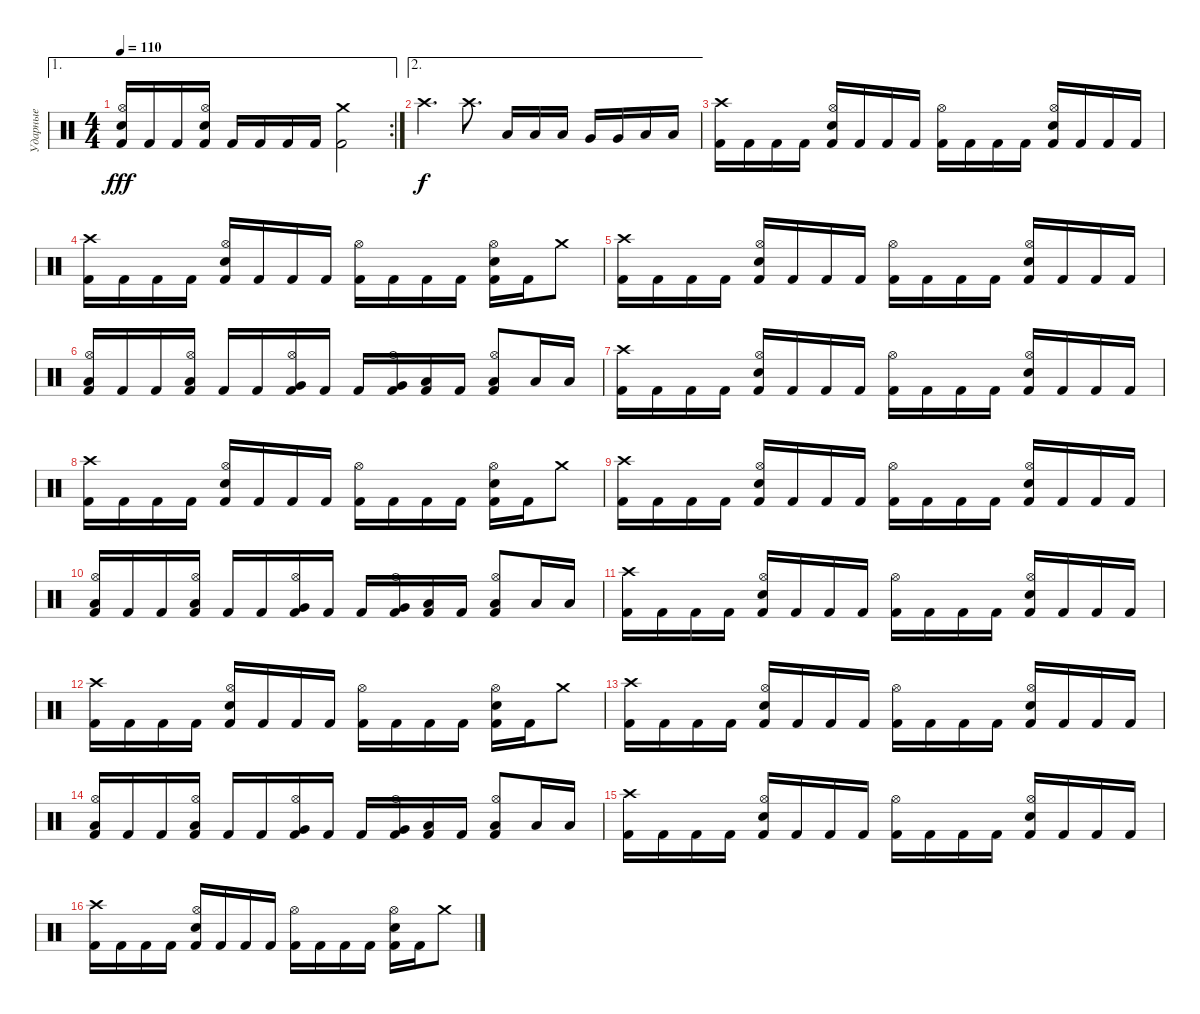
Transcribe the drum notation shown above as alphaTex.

\track ("Ударные" "Ударные") {instrument percussion}
\staff {score}
\articulation defaults
\ae 1
\rc 2
\ts (4 4)
\tempo 110
\clef neutral
\ks c
("Kick (hit) 2" "Hi-Hat (open)" "Snare (hit) 2").16{dy fff} "Kick (hit) 2".16 "Kick (hit) 2".16 ("Kick (hit) 2" "Hi-Hat (open)" "Snare (hit) 2").16 "Kick (hit) 2".16 "Kick (hit) 2".16 "Kick (hit) 2".16 "Kick (hit) 2".16 ("Kick (hit) 2" "Crash medium (hit)").2 |
\ae 2 "Crash high (hit)".4{d dy f} "Crash high (hit)".8{d} "Low Tom (hit)".16 "Low Tom (hit)".16 "Low Tom (hit)".16 "Very Low Tom (hit)".16 "Very Low Tom (hit)".16 "Low Floor Tom (hit)".16 "Low Floor Tom (hit)".16
|
("Kick (hit) 2" "Crash high (hit)").16 "Kick (hit) 2".16 "Kick (hit) 2".16 "Kick (hit) 2".16 ("Kick (hit) 2" "Hi-Hat (open)" "Snare (hit) 2").16 "Kick (hit) 2".16 "Kick (hit) 2".16 "Kick (hit) 2".16 ("Kick (hit) 2" "Hi-Hat (open)").16 "Kick (hit) 2".16 "Kick (hit) 2".16 "Kick (hit) 2".16 ("Kick (hit) 2" "Hi-Hat (open)" "Snare (hit) 2").16 "Kick (hit) 2".16 "Kick (hit) 2".16 "Kick (hit) 2".16 |
("Kick (hit) 2" "Crash high (hit)").16 "Kick (hit) 2".16 "Kick (hit) 2".16 "Kick (hit) 2".16 ("Kick (hit) 2" "Hi-Hat (open)" "Snare (hit) 2").16 "Kick (hit) 2".16 "Kick (hit) 2".16 "Kick (hit) 2".16 ("Kick (hit) 2" "Hi-Hat (open)").16 "Kick (hit) 2".16 "Kick (hit) 2".16 "Kick (hit) 2".16 ("Kick (hit) 2" "Hi-Hat (open)" "Snare (hit) 2").16 "Kick (hit) 2".16 "Crash medium (hit)".8 |
("Kick (hit) 2" "Crash high (hit)").16 "Kick (hit) 2".16 "Kick (hit) 2".16 "Kick (hit) 2".16 ("Kick (hit) 2" "Hi-Hat (open)" "Snare (hit) 2").16 "Kick (hit) 2".16 "Kick (hit) 2".16 "Kick (hit) 2".16 ("Kick (hit) 2" "Hi-Hat (open)").16 "Kick (hit) 2".16 "Kick (hit) 2".16 "Kick (hit) 2".16 ("Kick (hit) 2" "Hi-Hat (open)" "Snare (hit) 2").16 "Kick (hit) 2".16 "Kick (hit) 2".16 "Kick (hit) 2".16 |
("Kick (hit) 2" "Low Floor Tom (hit)" "Hi-Hat (open)").16 "Kick (hit) 2".16 "Kick (hit) 2".16 ("Kick (hit) 2" "Low Floor Tom (hit)" "Hi-Hat (open)").16 "Kick (hit) 2".16 "Kick (hit) 2".16 ("Kick (hit) 2" "Very Low Tom (hit)" "Hi-Hat (open)").16 "Kick (hit) 2".16 "Kick (hit) 2".16 ("Kick (hit) 2" "Very Low Tom (hit)" "Hi-Hat (open)").16 ("Kick (hit) 2" "Low Tom (hit)").16 "Kick (hit) 2".16 ("Kick (hit) 2" "Low Tom (hit)" "Hi-Hat (open)").8 "Low Floor Tom (hit)".16 "Low Floor Tom (hit)".16 |
("Kick (hit) 2" "Crash high (hit)").16 "Kick (hit) 2".16 "Kick (hit) 2".16 "Kick (hit) 2".16 ("Kick (hit) 2" "Hi-Hat (open)" "Snare (hit) 2").16 "Kick (hit) 2".16 "Kick (hit) 2".16 "Kick (hit) 2".16 ("Kick (hit) 2" "Hi-Hat (open)").16 "Kick (hit) 2".16 "Kick (hit) 2".16 "Kick (hit) 2".16 ("Kick (hit) 2" "Hi-Hat (open)" "Snare (hit) 2").16 "Kick (hit) 2".16 "Kick (hit) 2".16 "Kick (hit) 2".16 |
("Kick (hit) 2" "Crash high (hit)").16 "Kick (hit) 2".16 "Kick (hit) 2".16 "Kick (hit) 2".16 ("Kick (hit) 2" "Hi-Hat (open)" "Snare (hit) 2").16 "Kick (hit) 2".16 "Kick (hit) 2".16 "Kick (hit) 2".16 ("Kick (hit) 2" "Hi-Hat (open)").16 "Kick (hit) 2".16 "Kick (hit) 2".16 "Kick (hit) 2".16 ("Kick (hit) 2" "Hi-Hat (open)" "Snare (hit) 2").16 "Kick (hit) 2".16 "Crash medium (hit)".8 |
("Kick (hit) 2" "Crash high (hit)").16 "Kick (hit) 2".16 "Kick (hit) 2".16 "Kick (hit) 2".16 ("Kick (hit) 2" "Hi-Hat (open)" "Snare (hit) 2").16 "Kick (hit) 2".16 "Kick (hit) 2".16 "Kick (hit) 2".16 ("Kick (hit) 2" "Hi-Hat (open)").16 "Kick (hit) 2".16 "Kick (hit) 2".16 "Kick (hit) 2".16 ("Kick (hit) 2" "Hi-Hat (open)" "Snare (hit) 2").16 "Kick (hit) 2".16 "Kick (hit) 2".16 "Kick (hit) 2".16 |
("Kick (hit) 2" "Low Floor Tom (hit)" "Hi-Hat (open)").16 "Kick (hit) 2".16 "Kick (hit) 2".16 ("Kick (hit) 2" "Low Floor Tom (hit)" "Hi-Hat (open)").16 "Kick (hit) 2".16 "Kick (hit) 2".16 ("Kick (hit) 2" "Very Low Tom (hit)" "Hi-Hat (open)").16 "Kick (hit) 2".16 "Kick (hit) 2".16 ("Kick (hit) 2" "Very Low Tom (hit)" "Hi-Hat (open)").16 ("Kick (hit) 2" "Low Tom (hit)").16 "Kick (hit) 2".16 ("Kick (hit) 2" "Low Tom (hit)" "Hi-Hat (open)").8 "Low Floor Tom (hit)".16 "Low Floor Tom (hit)".16 |
("Kick (hit) 2" "Crash high (hit)").16 "Kick (hit) 2".16 "Kick (hit) 2".16 "Kick (hit) 2".16 ("Kick (hit) 2" "Hi-Hat (open)" "Snare (hit) 2").16 "Kick (hit) 2".16 "Kick (hit) 2".16 "Kick (hit) 2".16 ("Kick (hit) 2" "Hi-Hat (open)").16 "Kick (hit) 2".16 "Kick (hit) 2".16 "Kick (hit) 2".16 ("Kick (hit) 2" "Hi-Hat (open)" "Snare (hit) 2").16 "Kick (hit) 2".16 "Kick (hit) 2".16 "Kick (hit) 2".16 |
("Kick (hit) 2" "Crash high (hit)").16 "Kick (hit) 2".16 "Kick (hit) 2".16 "Kick (hit) 2".16 ("Kick (hit) 2" "Hi-Hat (open)" "Snare (hit) 2").16 "Kick (hit) 2".16 "Kick (hit) 2".16 "Kick (hit) 2".16 ("Kick (hit) 2" "Hi-Hat (open)").16 "Kick (hit) 2".16 "Kick (hit) 2".16 "Kick (hit) 2".16 ("Kick (hit) 2" "Hi-Hat (open)" "Snare (hit) 2").16 "Kick (hit) 2".16 "Crash medium (hit)".8 |
("Kick (hit) 2" "Crash high (hit)").16 "Kick (hit) 2".16 "Kick (hit) 2".16 "Kick (hit) 2".16 ("Kick (hit) 2" "Hi-Hat (open)" "Snare (hit) 2").16 "Kick (hit) 2".16 "Kick (hit) 2".16 "Kick (hit) 2".16 ("Kick (hit) 2" "Hi-Hat (open)").16 "Kick (hit) 2".16 "Kick (hit) 2".16 "Kick (hit) 2".16 ("Kick (hit) 2" "Hi-Hat (open)" "Snare (hit) 2").16 "Kick (hit) 2".16 "Kick (hit) 2".16 "Kick (hit) 2".16 |
("Kick (hit) 2" "Low Floor Tom (hit)" "Hi-Hat (open)").16 "Kick (hit) 2".16 "Kick (hit) 2".16 ("Kick (hit) 2" "Low Floor Tom (hit)" "Hi-Hat (open)").16 "Kick (hit) 2".16 "Kick (hit) 2".16 ("Kick (hit) 2" "Very Low Tom (hit)" "Hi-Hat (open)").16 "Kick (hit) 2".16 "Kick (hit) 2".16 ("Kick (hit) 2" "Very Low Tom (hit)" "Hi-Hat (open)").16 ("Kick (hit) 2" "Low Tom (hit)").16 "Kick (hit) 2".16 ("Kick (hit) 2" "Low Tom (hit)" "Hi-Hat (open)").8 "Low Floor Tom (hit)".16 "Low Floor Tom (hit)".16 |
("Kick (hit) 2" "Crash high (hit)").16 "Kick (hit) 2".16 "Kick (hit) 2".16 "Kick (hit) 2".16 ("Kick (hit) 2" "Hi-Hat (open)" "Snare (hit) 2").16 "Kick (hit) 2".16 "Kick (hit) 2".16 "Kick (hit) 2".16 ("Kick (hit) 2" "Hi-Hat (open)").16 "Kick (hit) 2".16 "Kick (hit) 2".16 "Kick (hit) 2".16 ("Kick (hit) 2" "Hi-Hat (open)" "Snare (hit) 2").16 "Kick (hit) 2".16 "Kick (hit) 2".16 "Kick (hit) 2".16 |
("Kick (hit) 2" "Crash high (hit)").16 "Kick (hit) 2".16 "Kick (hit) 2".16 "Kick (hit) 2".16 ("Kick (hit) 2" "Hi-Hat (open)" "Snare (hit) 2").16 "Kick (hit) 2".16 "Kick (hit) 2".16 "Kick (hit) 2".16 ("Kick (hit) 2" "Hi-Hat (open)").16 "Kick (hit) 2".16 "Kick (hit) 2".16 "Kick (hit) 2".16 ("Kick (hit) 2" "Hi-Hat (open)" "Snare (hit) 2").16 "Kick (hit) 2".16 "Crash medium (hit)".8
